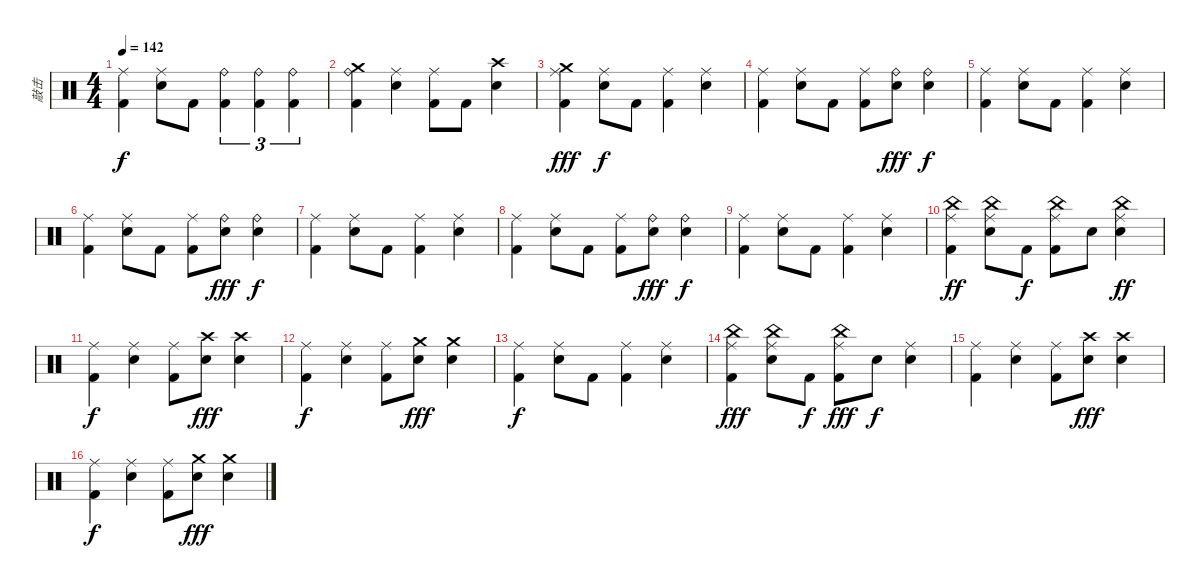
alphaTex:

\track ("敲击" "敲击") {instrument percussion}
\staff {score}
\articulation defaults
\ts (4 4)
\tempo 142
\clef neutral
\ks c
("Ride (middle)" "Kick (hit) 2").4{dy f} ("Ride (middle)" "Snare (hit) 2").8 "Kick (hit) 2".8 ("Ride (bell)" "Kick (hit) 2").4{tu (3 2)} ("Ride (bell)" "Kick (hit) 2").4{tu (3 2)} ("Ride (bell)" "Kick (hit) 2").4{tu (3 2)} |
("Ride (bell)" "Crash medium (hit)" "Kick (hit) 2").4 ("Ride (middle)" "Snare (hit) 2").4 ("Ride (middle)" "Kick (hit) 2").8 "Kick (hit) 2".8 ("Crash high (hit)" "Snare (hit) 2").4 |
("Ride (middle)" "Crash medium (hit)" "Kick (hit) 2").4{dy fff} ("Ride (middle)" "Electric Snare (hit)").8{dy f} "Kick (hit) 2".8 ("Ride (middle)" "Kick (hit) 2").4 ("Ride (middle)" "Electric Snare (hit)").4 |
("Ride (middle)" "Kick (hit) 2").4 ("Ride (middle)" "Electric Snare (hit)").8 "Kick (hit) 2".8 ("Ride (middle)" "Kick (hit) 2").8 ("Ride (bell)" "Electric Snare (hit)").8{dy fff} ("Ride (bell)" "Electric Snare (hit)").4{dy f} |
("Ride (middle)" "Kick (hit) 2").4 ("Ride (middle)" "Electric Snare (hit)").8 "Kick (hit) 2".8 ("Ride (middle)" "Kick (hit) 2").4 ("Ride (middle)" "Electric Snare (hit)").4 |
("Ride (middle)" "Kick (hit) 2").4 ("Ride (middle)" "Electric Snare (hit)").8 "Kick (hit) 2".8 ("Ride (middle)" "Kick (hit) 2").8 ("Ride (bell)" "Electric Snare (hit)").8{dy fff} ("Ride (bell)" "Electric Snare (hit)").4{dy f} |
("Ride (middle)" "Kick (hit) 2").4 ("Ride (middle)" "Electric Snare (hit)").8 "Kick (hit) 2".8 ("Ride (middle)" "Kick (hit) 2").4 ("Ride (middle)" "Electric Snare (hit)").4 |
("Ride (middle)" "Kick (hit) 2").4 ("Ride (middle)" "Electric Snare (hit)").8 "Kick (hit) 2".8 ("Ride (middle)" "Kick (hit) 2").8 ("Ride (bell)" "Electric Snare (hit)").8{dy fff} ("Ride (bell)" "Electric Snare (hit)").4{dy f} |
("Ride (middle)" "Kick (hit) 2").4 ("Ride (middle)" "Electric Snare (hit)").8 "Kick (hit) 2".8 ("Ride (middle)" "Kick (hit) 2").4 ("Ride (middle)" "Electric Snare (hit)").4 |
("Ride (middle)" "China (hit)" "Kick (hit) 2").4{dy ff} ("Ride (middle)" "China (hit)" "Electric Snare (hit)").8 "Kick (hit) 2".8{dy f} ("Ride (middle)" "China (hit)" "Kick (hit) 2").8 "Electric Snare (hit)".8 ("Ride (middle)" "China (hit)" "Electric Snare (hit)").4{dy ff} |
("Ride (middle)" "Kick (hit) 2").4{dy f} ("Ride (middle)" "Electric Snare (hit)").4 ("Ride (middle)" "Kick (hit) 2").8 ("Crash high (hit)" "Snare (hit) 2").8{dy fff} ("Crash high (hit)" "Snare (hit) 2").4 |
("Ride (middle)" "Kick (hit) 2").4{dy f} ("Ride (middle)" "Electric Snare (hit)").4 ("Ride (middle)" "Kick (hit) 2").8 ("Crash medium (hit)" "Snare (hit) 2").8{dy fff} ("Crash medium (hit)" "Snare (hit) 2").4 |
("Ride (middle)" "Kick (hit) 2").4{dy f} ("Ride (middle)" "Electric Snare (hit)").8 "Kick (hit) 2".8 ("Ride (middle)" "Kick (hit) 2").4 ("Ride (middle)" "Electric Snare (hit)").4 |
("Ride (middle)" "China (hit)" "Kick (hit) 2").4{dy fff} ("Ride (middle)" "China (hit)" "Electric Snare (hit)").8 "Kick (hit) 2".8{dy f} ("Ride (middle)" "China (hit)" "Kick (hit) 2").8{dy fff} "Electric Snare (hit)".8{dy f} ("Ride (middle)" "Electric Snare (hit)").4 |
("Ride (middle)" "Kick (hit) 2").4 ("Ride (middle)" "Electric Snare (hit)").4 ("Ride (middle)" "Kick (hit) 2").8 ("Crash high (hit)" "Snare (hit) 2").8{dy fff} ("Crash high (hit)" "Snare (hit) 2").4 |
("Ride (middle)" "Kick (hit) 2").4{dy f} ("Ride (middle)" "Electric Snare (hit)").4 ("Ride (middle)" "Kick (hit) 2").8 ("Crash medium (hit)" "Snare (hit) 2").8{dy fff} ("Crash medium (hit)" "Snare (hit) 2").4
